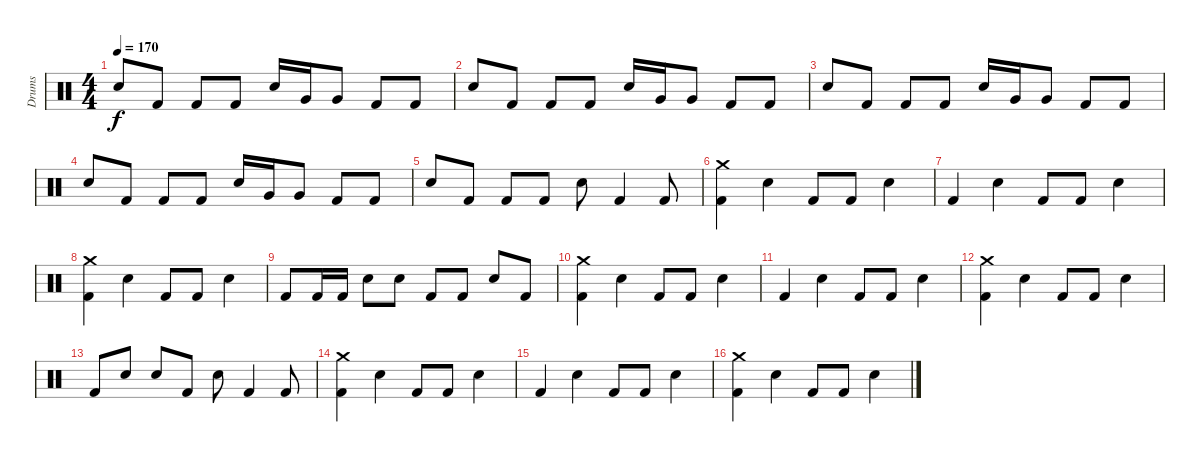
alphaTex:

\track ("Drums" "Drums") {instrument percussion}
\staff {score}
\articulation defaults
\ts (4 4)
\tempo 170
\clef neutral
\ks c "Snare (hit) 2".8{dy f} "Kick (hit) 2".8 "Kick (hit) 2".8 "Kick (hit) 2".8 "Snare (hit) 2".16 "Very Low Tom (hit)".16 "Very Low Tom (hit)".8 "Kick (hit) 2".8 "Kick (hit) 2".8
|
"Snare (hit) 2".8 "Kick (hit) 2".8 "Kick (hit) 2".8 "Kick (hit) 2".8 "Snare (hit) 2".16 "Very Low Tom (hit)".16 "Very Low Tom (hit)".8 "Kick (hit) 2".8 "Kick (hit) 2".8 |
"Snare (hit) 2".8 "Kick (hit) 2".8 "Kick (hit) 2".8 "Kick (hit) 2".8 "Snare (hit) 2".16 "Very Low Tom (hit)".16 "Very Low Tom (hit)".8 "Kick (hit) 2".8 "Kick (hit) 2".8 |
"Snare (hit) 2".8 "Kick (hit) 2".8 "Kick (hit) 2".8 "Kick (hit) 2".8 "Snare (hit) 2".16 "Very Low Tom (hit)".16 "Very Low Tom (hit)".8 "Kick (hit) 2".8 "Kick (hit) 2".8 |
"Snare (hit) 2".8 "Kick (hit) 2".8 "Kick (hit) 2".8 "Kick (hit) 2".8 "Snare (hit) 2".8 "Kick (hit) 2".4 "Kick (hit) 2".8 |
("Crash medium (hit)" "Kick (hit) 2").4 "Snare (hit) 2".4 "Kick (hit) 2".8 "Kick (hit) 2".8 "Snare (hit) 2".4 |
"Kick (hit) 2".4 "Snare (hit) 2".4 "Kick (hit) 2".8 "Kick (hit) 2".8 "Snare (hit) 2".4 |
("Crash medium (hit)" "Kick (hit) 2").4 "Snare (hit) 2".4 "Kick (hit) 2".8 "Kick (hit) 2".8 "Snare (hit) 2".4 |
"Kick (hit) 2".8 "Kick (hit) 2".16 "Kick (hit) 2".16 "Snare (hit) 2".8 "Snare (hit) 2".8 "Kick (hit) 2".8 "Kick (hit) 2".8 "Snare (hit) 2".8 "Kick (hit) 2".8 |
("Crash medium (hit)" "Kick (hit) 2").4 "Snare (hit) 2".4 "Kick (hit) 2".8 "Kick (hit) 2".8 "Snare (hit) 2".4 |
"Kick (hit) 2".4 "Snare (hit) 2".4 "Kick (hit) 2".8 "Kick (hit) 2".8 "Snare (hit) 2".4 |
("Crash medium (hit)" "Kick (hit) 2").4 "Snare (hit) 2".4 "Kick (hit) 2".8 "Kick (hit) 2".8 "Snare (hit) 2".4 |
"Kick (hit) 2".8 "Snare (hit) 2".8 "Snare (hit) 2".8 "Kick (hit) 2".8 "Snare (hit) 2".8 "Kick (hit) 2".4 "Kick (hit) 2".8 |
("Crash medium (hit)" "Kick (hit) 2").4 "Snare (hit) 2".4 "Kick (hit) 2".8 "Kick (hit) 2".8 "Snare (hit) 2".4 |
"Kick (hit) 2".4 "Snare (hit) 2".4 "Kick (hit) 2".8 "Kick (hit) 2".8 "Snare (hit) 2".4 |
("Crash medium (hit)" "Kick (hit) 2").4 "Snare (hit) 2".4 "Kick (hit) 2".8 "Kick (hit) 2".8 "Snare (hit) 2".4
